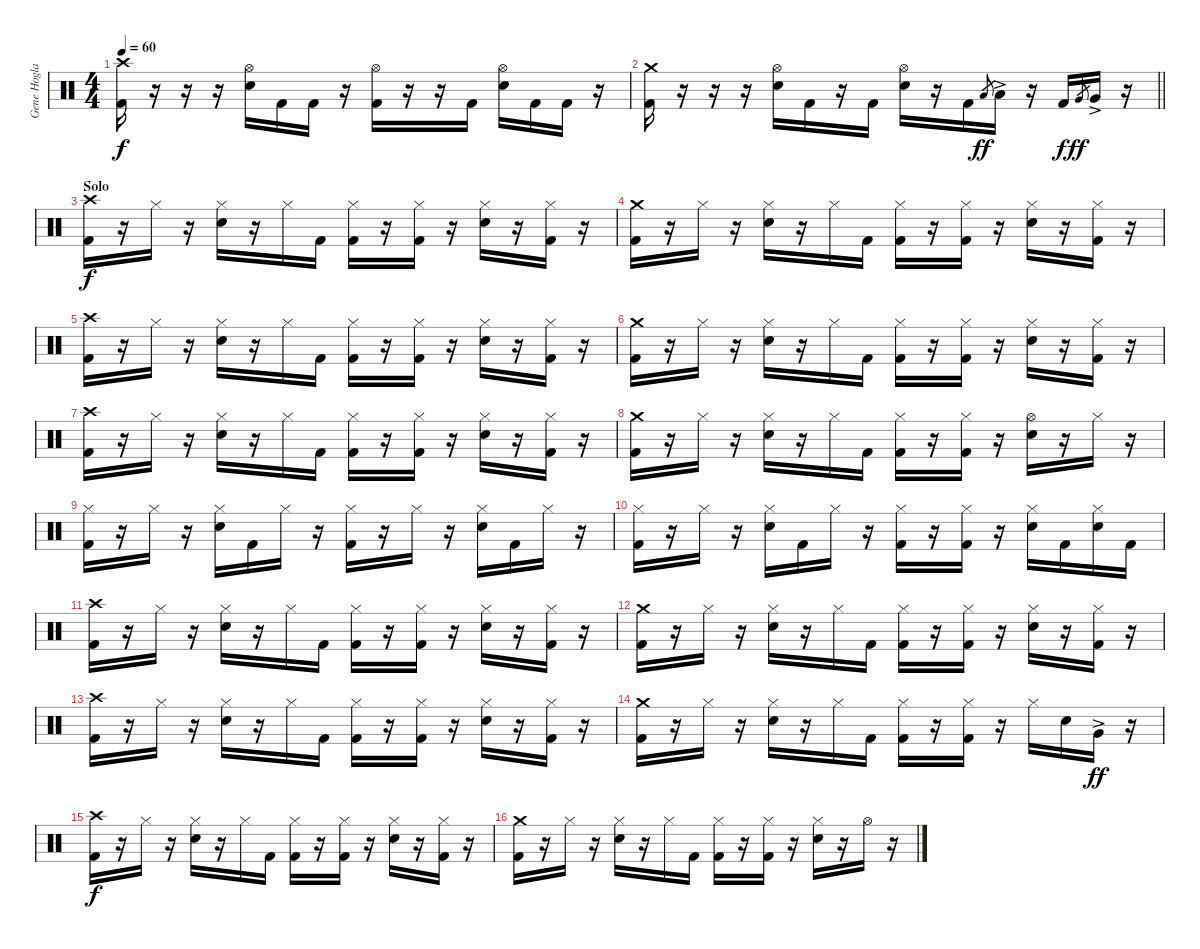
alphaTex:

\track ("Gene Hoglan" "Gene Hogla") {instrument percussion}
\staff {score}
\articulation defaults
\ts (4 4)
\tempo 60
\clef neutral
\ks c
("Crash high (hit)" "Kick (hit) 2").16{dy f} r.16 r.16 r.16 ("Hi-Hat (open)" "Snare (hit) 2").16 "Kick (hit) 2".16 "Kick (hit) 2".16 r.16 ("Hi-Hat (open)" "Kick (hit) 2").16 r.16 r.16 "Kick (hit) 2".16 ("Hi-Hat (open)" "Snare (hit) 2").16 "Kick (hit) 2".16 "Kick (hit) 2".16 r.16 |
\barLineRight lightlight
("Crash medium (hit)" "Kick (hit) 2").16 r.16 r.16 r.16 ("Hi-Hat (open)" "Snare (hit) 2").16 "Kick (hit) 2".16 r.16 "Kick (hit) 2".16 ("Hi-Hat (open)" "Snare (hit) 2").16 r.16 "Kick (hit) 2".16 "Low Tom (hit)".8{gr dy ff} "Low Tom (hit)"{ac}.16 r.16 "Kick (hit) 2".16{dy f} "Very Low Tom (hit)".8{gr dy ff} "Very Low Tom (hit)"{ac}.16 r.16 |
\section ("" "Solo")
("Crash high (hit)" "Kick (hit) 2").16{dy f} r.16 "Hi-Hat (closed)".16 r.16 ("Hi-Hat (closed)" "Snare (hit) 2").16 r.16 "Hi-Hat (closed)".16 "Kick (hit) 2".16 ("Hi-Hat (closed)" "Kick (hit) 2").16 r.16 ("Hi-Hat (closed)" "Kick (hit) 2").16 r.16 ("Hi-Hat (closed)" "Snare (hit) 2").16 r.16 ("Hi-Hat (closed)" "Kick (hit) 2").16 r.16 |
("Crash medium (hit)" "Kick (hit) 2").16 r.16 "Hi-Hat (closed)".16 r.16 ("Hi-Hat (closed)" "Snare (hit) 2").16 r.16 "Hi-Hat (closed)".16 "Kick (hit) 2".16 ("Hi-Hat (closed)" "Kick (hit) 2").16 r.16 ("Hi-Hat (closed)" "Kick (hit) 2").16 r.16 ("Hi-Hat (closed)" "Snare (hit) 2").16 r.16 ("Hi-Hat (closed)" "Kick (hit) 2").16 r.16 |
("Crash high (hit)" "Kick (hit) 2").16 r.16 "Hi-Hat (closed)".16 r.16 ("Hi-Hat (closed)" "Snare (hit) 2").16 r.16 "Hi-Hat (closed)".16 "Kick (hit) 2".16 ("Hi-Hat (closed)" "Kick (hit) 2").16 r.16 ("Hi-Hat (closed)" "Kick (hit) 2").16 r.16 ("Hi-Hat (closed)" "Snare (hit) 2").16 r.16 ("Hi-Hat (closed)" "Kick (hit) 2").16 r.16 |
("Crash medium (hit)" "Kick (hit) 2").16 r.16 "Hi-Hat (closed)".16 r.16 ("Hi-Hat (closed)" "Snare (hit) 2").16 r.16 "Hi-Hat (closed)".16 "Kick (hit) 2".16 ("Hi-Hat (closed)" "Kick (hit) 2").16 r.16 ("Hi-Hat (closed)" "Kick (hit) 2").16 r.16 ("Hi-Hat (closed)" "Snare (hit) 2").16 r.16 ("Hi-Hat (closed)" "Kick (hit) 2").16 r.16 |
("Crash high (hit)" "Kick (hit) 2").16 r.16 "Hi-Hat (closed)".16 r.16 ("Hi-Hat (closed)" "Snare (hit) 2").16 r.16 "Hi-Hat (closed)".16 "Kick (hit) 2".16 ("Hi-Hat (closed)" "Kick (hit) 2").16 r.16 ("Hi-Hat (closed)" "Kick (hit) 2").16 r.16 ("Hi-Hat (closed)" "Snare (hit) 2").16 r.16 ("Hi-Hat (closed)" "Kick (hit) 2").16 r.16 |
("Crash medium (hit)" "Kick (hit) 2").16 r.16 "Hi-Hat (closed)".16 r.16 ("Hi-Hat (closed)" "Snare (hit) 2").16 r.16 "Hi-Hat (closed)".16 "Kick (hit) 2".16 ("Hi-Hat (closed)" "Kick (hit) 2").16 r.16 ("Hi-Hat (closed)" "Kick (hit) 2").16 r.16 ("Hi-Hat (open)" "Snare (hit) 2").16 r.16 "Hi-Hat (closed)".16 r.16 |
("Hi-Hat (closed)" "Kick (hit) 2").16 r.16 "Hi-Hat (closed)".16 r.16 ("Hi-Hat (closed)" "Snare (hit) 2").16 "Kick (hit) 2".16 "Hi-Hat (closed)".16 r.16 ("Hi-Hat (closed)" "Kick (hit) 2").16 r.16 "Hi-Hat (closed)".16 r.16 ("Hi-Hat (closed)" "Snare (hit) 2").16 "Kick (hit) 2".16 "Hi-Hat (closed)".16 r.16 |
("Hi-Hat (closed)" "Kick (hit) 2").16 r.16 "Hi-Hat (closed)".16 r.16 ("Hi-Hat (closed)" "Snare (hit) 2").16 "Kick (hit) 2".16 "Hi-Hat (closed)".16 r.16 ("Hi-Hat (closed)" "Kick (hit) 2").16 r.16 ("Hi-Hat (closed)" "Kick (hit) 2").16 r.16 ("Hi-Hat (closed)" "Snare (hit) 2").16 "Kick (hit) 2".16 ("Hi-Hat (closed)" "Snare (hit) 2").16 "Kick (hit) 2".16 |
("Crash high (hit)" "Kick (hit) 2").16 r.16 "Hi-Hat (closed)".16 r.16 ("Hi-Hat (closed)" "Snare (hit) 2").16 r.16 "Hi-Hat (closed)".16 "Kick (hit) 2".16 ("Hi-Hat (closed)" "Kick (hit) 2").16 r.16 ("Hi-Hat (closed)" "Kick (hit) 2").16 r.16 ("Hi-Hat (closed)" "Snare (hit) 2").16 r.16 ("Hi-Hat (closed)" "Kick (hit) 2").16 r.16 |
("Crash medium (hit)" "Kick (hit) 2").16 r.16 "Hi-Hat (closed)".16 r.16 ("Hi-Hat (closed)" "Snare (hit) 2").16 r.16 "Hi-Hat (closed)".16 "Kick (hit) 2".16 ("Hi-Hat (closed)" "Kick (hit) 2").16 r.16 ("Hi-Hat (closed)" "Kick (hit) 2").16 r.16 ("Hi-Hat (closed)" "Snare (hit) 2").16 r.16 ("Hi-Hat (closed)" "Kick (hit) 2").16 r.16 |
("Crash high (hit)" "Kick (hit) 2").16 r.16 "Hi-Hat (closed)".16 r.16 ("Hi-Hat (closed)" "Snare (hit) 2").16 r.16 "Hi-Hat (closed)".16 "Kick (hit) 2".16 ("Hi-Hat (closed)" "Kick (hit) 2").16 r.16 ("Hi-Hat (closed)" "Kick (hit) 2").16 r.16 ("Hi-Hat (closed)" "Snare (hit) 2").16 r.16 ("Hi-Hat (closed)" "Kick (hit) 2").16 r.16 |
("Crash medium (hit)" "Kick (hit) 2").16 r.16 "Hi-Hat (closed)".16 r.16 ("Hi-Hat (closed)" "Snare (hit) 2").16 r.16 "Hi-Hat (closed)".16 "Kick (hit) 2".16 ("Hi-Hat (closed)" "Kick (hit) 2").16 r.16 ("Hi-Hat (closed)" "Kick (hit) 2").16 r.16 "Hi-Hat (closed)".16 "Snare (hit) 2".16 "Very Low Tom (hit)"{ac}.16{dy ff} r.16 |
("Crash high (hit)" "Kick (hit) 2").16{dy f} r.16 "Hi-Hat (closed)".16 r.16 ("Hi-Hat (closed)" "Snare (hit) 2").16 r.16 "Hi-Hat (closed)".16 "Kick (hit) 2".16 ("Hi-Hat (closed)" "Kick (hit) 2").16 r.16 ("Hi-Hat (closed)" "Kick (hit) 2").16 r.16 ("Hi-Hat (closed)" "Snare (hit) 2").16 r.16 ("Hi-Hat (closed)" "Kick (hit) 2").16 r.16 |
("Crash medium (hit)" "Kick (hit) 2").16 r.16 "Hi-Hat (closed)".16 r.16 ("Hi-Hat (closed)" "Snare (hit) 2").16 r.16 "Hi-Hat (closed)".16 "Kick (hit) 2".16 ("Hi-Hat (closed)" "Kick (hit) 2").16 r.16 ("Hi-Hat (closed)" "Kick (hit) 2").16 r.16 ("Hi-Hat (closed)" "Snare (hit) 2").16 r.16 "Hi-Hat (open)".16 r.16
